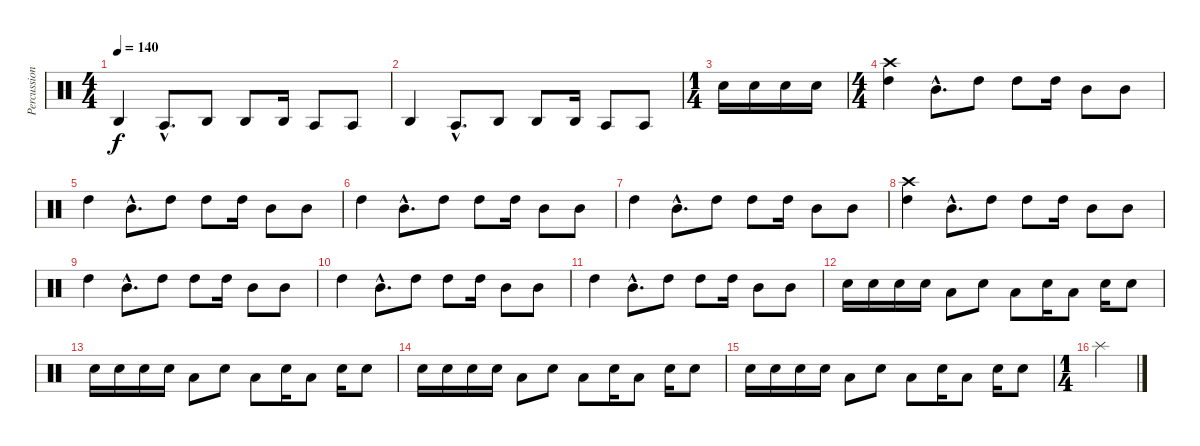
\track ("Percussion" "Percussion") {instrument percussion}
\staff {score}
\articulation defaults
\ts (4 4)
\tempo 140
\clef neutral
\ks c "Agogo high (hit)".4{dy f} "Agogo tow (hit)"{hac}.8{d} "Agogo high (hit)".8 "Agogo high (hit)".8 "Agogo high (hit)".16 "Agogo tow (hit)".8 "Agogo tow (hit)".8
|
"Agogo high (hit)".4 "Agogo tow (hit)"{hac}.8{d} "Agogo high (hit)".8 "Agogo high (hit)".8 "Agogo high (hit)".16 "Agogo tow (hit)".8 "Agogo tow (hit)".8 |
\ts (1 4)
"Electric Snare (hit)".16 "Electric Snare (hit)".16 "Electric Snare (hit)".16 "Electric Snare (hit)".16 |
\ts (4 4)
("Crash high (hit)" "High Tom (hit)").4 "Mid Tom (hit)"{hac}.8{d} "High Tom (hit)".8 "High Tom (hit)".8 "High Tom (hit)".16 "Mid Tom (hit)".8 "Mid Tom (hit)".8 |
"High Tom (hit)".4 "Mid Tom (hit)"{hac}.8{d} "High Tom (hit)".8 "High Tom (hit)".8 "High Tom (hit)".16 "Mid Tom (hit)".8 "Mid Tom (hit)".8 |
"High Tom (hit)".4 "Mid Tom (hit)"{hac}.8{d} "High Tom (hit)".8 "High Tom (hit)".8 "High Tom (hit)".16 "Mid Tom (hit)".8 "Mid Tom (hit)".8 |
"High Tom (hit)".4 "Mid Tom (hit)"{hac}.8{d} "High Tom (hit)".8 "High Tom (hit)".8 "High Tom (hit)".16 "Mid Tom (hit)".8 "Mid Tom (hit)".8 |
("Crash high (hit)" "High Tom (hit)").4 "Mid Tom (hit)"{hac}.8{d} "High Tom (hit)".8 "High Tom (hit)".8 "High Tom (hit)".16 "Mid Tom (hit)".8 "Mid Tom (hit)".8 |
"High Tom (hit)".4 "Mid Tom (hit)"{hac}.8{d} "High Tom (hit)".8 "High Tom (hit)".8 "High Tom (hit)".16 "Mid Tom (hit)".8 "Mid Tom (hit)".8 |
"High Tom (hit)".4 "Mid Tom (hit)"{hac}.8{d} "High Tom (hit)".8 "High Tom (hit)".8 "High Tom (hit)".16 "Mid Tom (hit)".8 "Mid Tom (hit)".8 |
"High Tom (hit)".4 "Mid Tom (hit)"{hac}.8{d} "High Tom (hit)".8 "High Tom (hit)".8 "High Tom (hit)".16 "Mid Tom (hit)".8 "Mid Tom (hit)".8 |
"Electric Snare (hit)".16 "Electric Snare (hit)".16 "Electric Snare (hit)".16 "Electric Snare (hit)".16 "Low Floor Tom (hit)".8 "Electric Snare (hit)".8 "Low Floor Tom (hit)".8 "Electric Snare (hit)".16 "Low Floor Tom (hit)".8 "Electric Snare (hit)".16 "Electric Snare (hit)".8 |
"Electric Snare (hit)".16 "Electric Snare (hit)".16 "Electric Snare (hit)".16 "Electric Snare (hit)".16 "Low Floor Tom (hit)".8 "Electric Snare (hit)".8 "Low Floor Tom (hit)".8 "Electric Snare (hit)".16 "Low Floor Tom (hit)".8 "Electric Snare (hit)".16 "Electric Snare (hit)".8 |
"Electric Snare (hit)".16 "Electric Snare (hit)".16 "Electric Snare (hit)".16 "Electric Snare (hit)".16 "Low Floor Tom (hit)".8 "Electric Snare (hit)".8 "Low Floor Tom (hit)".8 "Electric Snare (hit)".16 "Low Floor Tom (hit)".8 "Electric Snare (hit)".16 "Electric Snare (hit)".8 |
"Electric Snare (hit)".16 "Electric Snare (hit)".16 "Electric Snare (hit)".16 "Electric Snare (hit)".16 "Low Floor Tom (hit)".8 "Electric Snare (hit)".8 "Low Floor Tom (hit)".8 "Electric Snare (hit)".16 "Low Floor Tom (hit)".8 "Electric Snare (hit)".16 "Electric Snare (hit)".8 |
\ts (1 4)
"Splash (hit)".4
